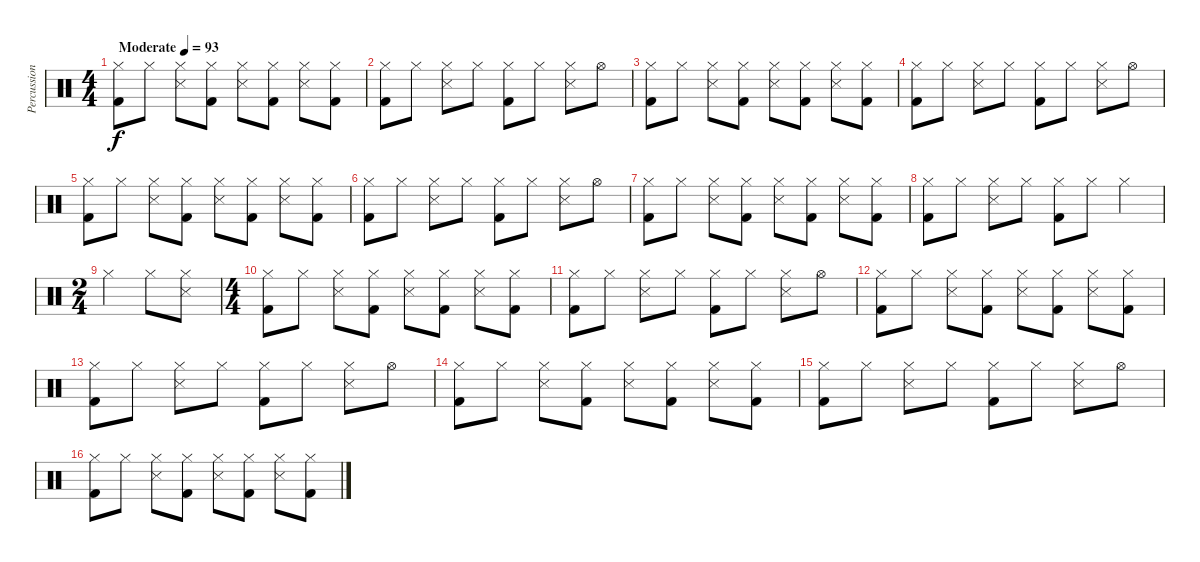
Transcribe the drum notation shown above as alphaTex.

\track ("Percussioni" "Percussion") {instrument percussion}
\staff {score}
\articulation defaults
\ts (4 4)
\tempo (93 "Moderate")
\clef neutral
\ks c
("Hi-Hat (closed)" "Kick (hit) 2").8{dy f} "Hi-Hat (closed)".8 ("Hi-Hat (closed)" "Snare (side stick) 3").8 ("Hi-Hat (closed)" "Kick (hit) 2").8 ("Hi-Hat (closed)" "Snare (side stick) 3").8 ("Hi-Hat (closed)" "Kick (hit) 2").8 ("Hi-Hat (closed)" "Snare (side stick) 3").8 ("Hi-Hat (closed)" "Kick (hit) 2").8 |
("Hi-Hat (closed)" "Kick (hit) 2").8 "Hi-Hat (closed)".8 ("Hi-Hat (closed)" "Snare (side stick) 3").8 "Hi-Hat (closed)".8 ("Hi-Hat (closed)" "Kick (hit) 2").8 "Hi-Hat (closed)".8 ("Hi-Hat (closed)" "Snare (side stick) 3").8 "Hi-Hat (open)".8 |
("Hi-Hat (closed)" "Kick (hit) 2").8 "Hi-Hat (closed)".8 ("Hi-Hat (closed)" "Snare (side stick) 3").8 ("Hi-Hat (closed)" "Kick (hit) 2").8 ("Hi-Hat (closed)" "Snare (side stick) 3").8 ("Hi-Hat (closed)" "Kick (hit) 2").8 ("Hi-Hat (closed)" "Snare (side stick) 3").8 ("Hi-Hat (closed)" "Kick (hit) 2").8 |
("Hi-Hat (closed)" "Kick (hit) 2").8 "Hi-Hat (closed)".8 ("Hi-Hat (closed)" "Snare (side stick) 3").8 "Hi-Hat (closed)".8 ("Hi-Hat (closed)" "Kick (hit) 2").8 "Hi-Hat (closed)".8 ("Hi-Hat (closed)" "Snare (side stick) 3").8 "Hi-Hat (open)".8 |
("Hi-Hat (closed)" "Kick (hit) 2").8 "Hi-Hat (closed)".8 ("Hi-Hat (closed)" "Snare (side stick) 3").8 ("Hi-Hat (closed)" "Kick (hit) 2").8 ("Hi-Hat (closed)" "Snare (side stick) 3").8 ("Hi-Hat (closed)" "Kick (hit) 2").8 ("Hi-Hat (closed)" "Snare (side stick) 3").8 ("Hi-Hat (closed)" "Kick (hit) 2").8 |
("Hi-Hat (closed)" "Kick (hit) 2").8 "Hi-Hat (closed)".8 ("Hi-Hat (closed)" "Snare (side stick) 3").8 "Hi-Hat (closed)".8 ("Hi-Hat (closed)" "Kick (hit) 2").8 "Hi-Hat (closed)".8 ("Hi-Hat (closed)" "Snare (side stick) 3").8 "Hi-Hat (open)".8 |
("Hi-Hat (closed)" "Kick (hit) 2").8 "Hi-Hat (closed)".8 ("Hi-Hat (closed)" "Snare (side stick) 3").8 ("Hi-Hat (closed)" "Kick (hit) 2").8 ("Hi-Hat (closed)" "Snare (side stick) 3").8 ("Hi-Hat (closed)" "Kick (hit) 2").8 ("Hi-Hat (closed)" "Snare (side stick) 3").8 ("Hi-Hat (closed)" "Kick (hit) 2").8 |
("Hi-Hat (closed)" "Kick (hit) 2").8 "Hi-Hat (closed)".8 ("Hi-Hat (closed)" "Snare (side stick) 3").8 "Hi-Hat (closed)".8 ("Hi-Hat (closed)" "Kick (hit) 2").8 "Hi-Hat (closed)".8 "Hi-Hat (closed)".4 |
\ts (2 4)
"Hi-Hat (closed)".4 "Hi-Hat (closed)".8 ("Hi-Hat (closed)" "Snare (side stick) 3").8 |
\ts (4 4)
("Hi-Hat (closed)" "Kick (hit) 2").8 "Hi-Hat (closed)".8 ("Hi-Hat (closed)" "Snare (side stick) 3").8 ("Hi-Hat (closed)" "Kick (hit) 2").8 ("Hi-Hat (closed)" "Snare (side stick) 3").8 ("Hi-Hat (closed)" "Kick (hit) 2").8 ("Hi-Hat (closed)" "Snare (side stick) 3").8 ("Hi-Hat (closed)" "Kick (hit) 2").8 |
("Hi-Hat (closed)" "Kick (hit) 2").8 "Hi-Hat (closed)".8 ("Hi-Hat (closed)" "Snare (side stick) 3").8 "Hi-Hat (closed)".8 ("Hi-Hat (closed)" "Kick (hit) 2").8 "Hi-Hat (closed)".8 ("Hi-Hat (closed)" "Snare (side stick) 3").8 "Hi-Hat (open)".8 |
("Hi-Hat (closed)" "Kick (hit) 2").8 "Hi-Hat (closed)".8 ("Hi-Hat (closed)" "Snare (side stick) 3").8 ("Hi-Hat (closed)" "Kick (hit) 2").8 ("Hi-Hat (closed)" "Snare (side stick) 3").8 ("Hi-Hat (closed)" "Kick (hit) 2").8 ("Hi-Hat (closed)" "Snare (side stick) 3").8 ("Hi-Hat (closed)" "Kick (hit) 2").8 |
("Hi-Hat (closed)" "Kick (hit) 2").8 "Hi-Hat (closed)".8 ("Hi-Hat (closed)" "Snare (side stick) 3").8 "Hi-Hat (closed)".8 ("Hi-Hat (closed)" "Kick (hit) 2").8 "Hi-Hat (closed)".8 ("Hi-Hat (closed)" "Snare (side stick) 3").8 "Hi-Hat (open)".8 |
("Hi-Hat (closed)" "Kick (hit) 2").8 "Hi-Hat (closed)".8 ("Hi-Hat (closed)" "Snare (side stick) 3").8 ("Hi-Hat (closed)" "Kick (hit) 2").8 ("Hi-Hat (closed)" "Snare (side stick) 3").8 ("Hi-Hat (closed)" "Kick (hit) 2").8 ("Hi-Hat (closed)" "Snare (side stick) 3").8 ("Hi-Hat (closed)" "Kick (hit) 2").8 |
("Hi-Hat (closed)" "Kick (hit) 2").8 "Hi-Hat (closed)".8 ("Hi-Hat (closed)" "Snare (side stick) 3").8 "Hi-Hat (closed)".8 ("Hi-Hat (closed)" "Kick (hit) 2").8 "Hi-Hat (closed)".8 ("Hi-Hat (closed)" "Snare (side stick) 3").8 "Hi-Hat (open)".8 |
("Hi-Hat (closed)" "Kick (hit) 2").8 "Hi-Hat (closed)".8 ("Hi-Hat (closed)" "Snare (side stick) 3").8 ("Hi-Hat (closed)" "Kick (hit) 2").8 ("Hi-Hat (closed)" "Snare (side stick) 3").8 ("Hi-Hat (closed)" "Kick (hit) 2").8 ("Hi-Hat (closed)" "Snare (side stick) 3").8 ("Hi-Hat (closed)" "Kick (hit) 2").8
